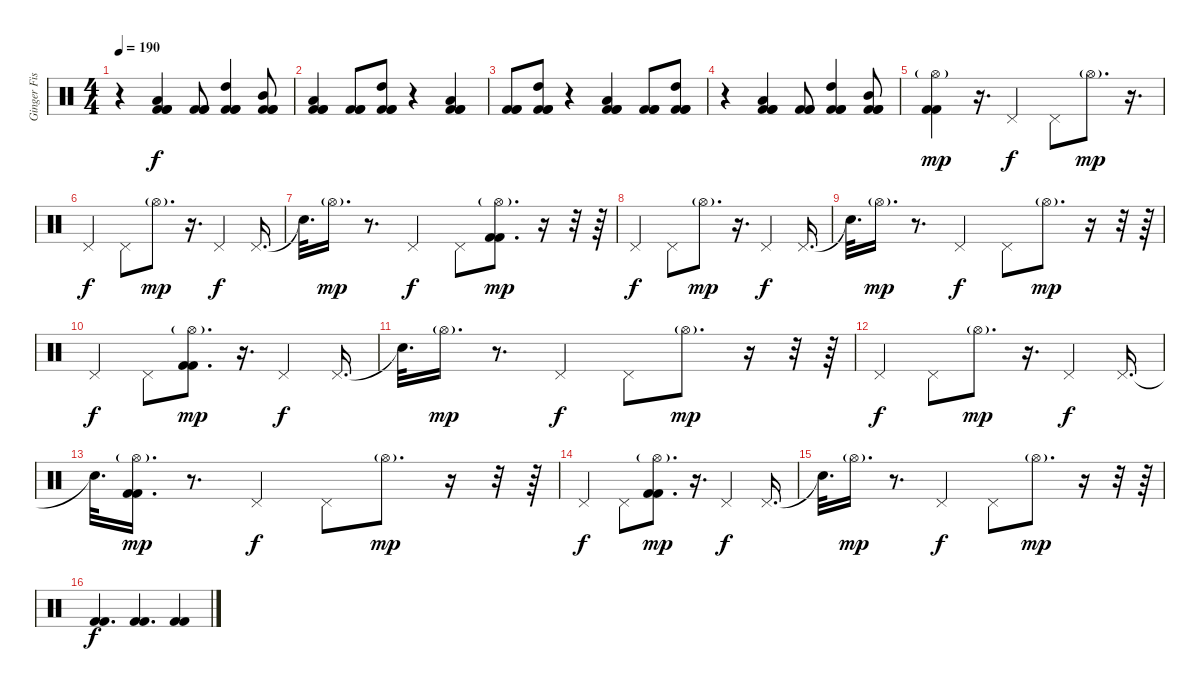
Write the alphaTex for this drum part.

\track ("Ginger Fish" "Ginger Fis") {instrument percussion}
\staff {score}
\articulation defaults
\ts (4 4)
\tempo 190
\clef neutral
\ks c
r.4{dy f} ("Low Tom (hit)" "Kick (hit) 2" "Kick (hit) 2" "Kick (hit) 2").4 ("Kick (hit) 2" "Kick (hit) 2" "Kick (hit) 2").8 ("High Tom (hit)" "Kick (hit) 2" "Kick (hit) 2" "Kick (hit) 2").4 ("Mid Tom (hit)" "Kick (hit) 2" "Kick (hit) 2" "Kick (hit) 2").8 |
("Low Tom (hit)" "Kick (hit) 2" "Kick (hit) 2" "Kick (hit) 2").4 ("Kick (hit) 2" "Kick (hit) 2" "Kick (hit) 2").8 ("High Tom (hit)" "Kick (hit) 2" "Kick (hit) 2" "Kick (hit) 2").8 r.4 ("Low Tom (hit)" "Kick (hit) 2" "Kick (hit) 2" "Kick (hit) 2").4 |
("Kick (hit) 2" "Kick (hit) 2" "Kick (hit) 2").8 ("High Tom (hit)" "Kick (hit) 2" "Kick (hit) 2" "Kick (hit) 2").8 r.4 ("Low Tom (hit)" "Kick (hit) 2" "Kick (hit) 2" "Kick (hit) 2").4 ("Kick (hit) 2" "Kick (hit) 2" "Kick (hit) 2").8 ("High Tom (hit)" "Kick (hit) 2" "Kick (hit) 2" "Kick (hit) 2").8 |
r.4 ("Low Tom (hit)" "Kick (hit) 2" "Kick (hit) 2" "Kick (hit) 2").4 ("Kick (hit) 2" "Kick (hit) 2" "Kick (hit) 2").8 ("High Tom (hit)" "Kick (hit) 2" "Kick (hit) 2" "Kick (hit) 2").4 ("Mid Tom (hit)" "Kick (hit) 2" "Kick (hit) 2" "Kick (hit) 2").8 |
("Hi-Hat (open)"{g} "Kick (hit) 2" "Kick (hit) 2").4{dy mp} r.16{d} "Pedal Hi-Hat (hit)".4{dy f} "Pedal Hi-Hat (hit)".8 "Hi-Hat (open)"{g}.8{d dy mp} r.16{d} |
"Pedal Hi-Hat (hit)".4{dy f} "Pedal Hi-Hat (hit)".8 "Hi-Hat (open)"{g}.8{d dy mp} r.16{d} "Pedal Hi-Hat (hit)".4{dy f} "Pedal Hi-Hat (hit)".16{d} |
"Snare (hit)"{t}.32{d} "Hi-Hat (open)"{g}.16{d dy mp} r.8{d} "Pedal Hi-Hat (hit)".4{dy f} "Pedal Hi-Hat (hit)".8 ("Hi-Hat (open)"{g} "Kick (hit) 2" "Kick (hit) 2").8{d dy mp} r.16 r.32 r.64 |
"Pedal Hi-Hat (hit)".4{dy f} "Pedal Hi-Hat (hit)".8 "Hi-Hat (open)"{g}.8{d dy mp} r.16{d} "Pedal Hi-Hat (hit)".4{dy f} "Pedal Hi-Hat (hit)".16{d} |
"Snare (hit)"{t}.32{d} "Hi-Hat (open)"{g}.16{d dy mp} r.8{d} "Pedal Hi-Hat (hit)".4{dy f} "Pedal Hi-Hat (hit)".8 "Hi-Hat (open)"{g}.8{d dy mp} r.16 r.32 r.64 |
"Pedal Hi-Hat (hit)".4{dy f} "Pedal Hi-Hat (hit)".8 ("Hi-Hat (open)"{g} "Kick (hit) 2" "Kick (hit) 2").8{d dy mp} r.16{d} "Pedal Hi-Hat (hit)".4{dy f} "Pedal Hi-Hat (hit)".16{d} |
"Snare (hit)"{t}.32{d} "Hi-Hat (open)"{g}.16{d dy mp} r.8{d} "Pedal Hi-Hat (hit)".4{dy f} "Pedal Hi-Hat (hit)".8 "Hi-Hat (open)"{g}.8{d dy mp} r.16 r.32 r.64 |
"Pedal Hi-Hat (hit)".4{dy f} "Pedal Hi-Hat (hit)".8 "Hi-Hat (open)"{g}.8{d dy mp} r.16{d} "Pedal Hi-Hat (hit)".4{dy f} "Pedal Hi-Hat (hit)".16{d} |
"Snare (hit)"{t}.32{d} ("Hi-Hat (open)"{g} "Kick (hit) 2" "Kick (hit) 2").16{d dy mp} r.8{d} "Pedal Hi-Hat (hit)".4{dy f} "Pedal Hi-Hat (hit)".8 "Hi-Hat (open)"{g}.8{d dy mp} r.16 r.32 r.64 |
"Pedal Hi-Hat (hit)".4{dy f} "Pedal Hi-Hat (hit)".8 ("Hi-Hat (open)"{g} "Kick (hit) 2" "Kick (hit) 2").8{d dy mp} r.16{d} "Pedal Hi-Hat (hit)".4{dy f} "Pedal Hi-Hat (hit)".16{d} |
"Snare (hit)"{t}.32{d} "Hi-Hat (open)"{g}.16{d dy mp} r.8{d} "Pedal Hi-Hat (hit)".4{dy f} "Pedal Hi-Hat (hit)".8 "Hi-Hat (open)"{g}.8{d dy mp} r.16 r.32 r.64 |
("Kick (hit) 2" "Kick (hit) 2").4{d dy f} ("Kick (hit) 2" "Kick (hit) 2").4{d} ("Kick (hit) 2" "Kick (hit) 2").4
